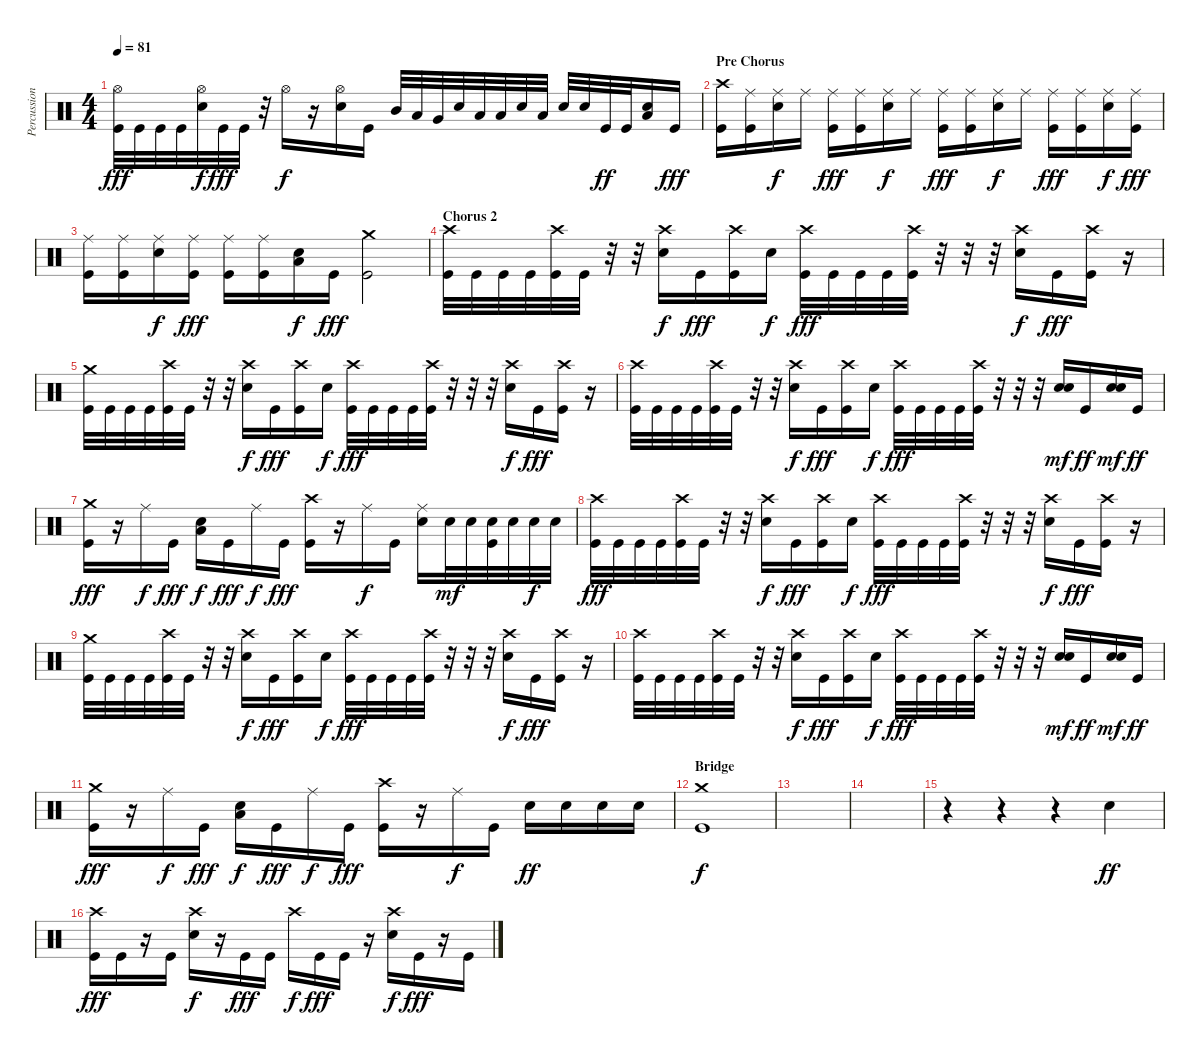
\track ("Percussion" "Percussion") {instrument percussion}
\staff {score}
\articulation defaults
\ts (4 4)
\tempo 81
\clef neutral
\ks c
("Hi-Hat (open)" "Kick (hit)").32{dy fff} "Kick (hit)".32 "Kick (hit)".32 "Kick (hit)".32 ("Hi-Hat (open)" "Electric Snare (hit)").32{dy f} "Kick (hit)".32{dy fff} "Kick (hit)".32 r.32 "Hi-Hat (open)".16{dy f} r.16 ("Hi-Hat (open)" "Electric Snare (hit)").16 "Kick (hit)".16 "Mid Tom (hit)".32 "Low Tom (hit)".32 "Very Low Tom (hit)".32 "Electric Snare (hit)".32 "Low Floor Tom (hit)".32 "Low Floor Tom (hit)".32 "Electric Snare (hit)".32 "Low Floor Tom (hit)".32 "Electric Snare (hit)".32 "Electric Snare (hit)".32 "Kick (hit)".32{dy ff} "Kick (hit)".32 ("Electric Snare (hit)" "Low Floor Tom (hit)").16 "Kick (hit)".16{dy fff} |
\section ("" "Pre Chorus")
("Crash high (hit)" "Kick (hit)").16 ("Ride (middle)" "Kick (hit)").16 ("Ride (middle)" "Electric Snare (hit)").16{dy f} "Ride (middle)".16 ("Ride (middle)" "Kick (hit)").16{dy fff} ("Ride (middle)" "Kick (hit)").16 ("Ride (middle)" "Electric Snare (hit)").16{dy f} "Ride (middle)".16 ("Ride (middle)" "Kick (hit)").16{dy fff} ("Ride (middle)" "Kick (hit)").16 ("Ride (middle)" "Electric Snare (hit)").16{dy f} "Ride (middle)".16 ("Ride (middle)" "Kick (hit)").16{dy fff} ("Ride (middle)" "Kick (hit)").16 ("Ride (middle)" "Electric Snare (hit)").16{dy f} ("Ride (middle)" "Kick (hit)").16{dy fff} |
("Ride (middle)" "Kick (hit)").16 ("Ride (middle)" "Kick (hit)").16 ("Ride (middle)" "Electric Snare (hit)").16{dy f} ("Ride (middle)" "Kick (hit)").16{dy fff} ("Ride (middle)" "Kick (hit)").16 ("Ride (middle)" "Kick (hit)").16 ("Electric Snare (hit)" "Low Floor Tom (hit)").16{dy f} "Kick (hit)".16{dy fff} ("Crash medium (hit)" "Kick (hit)").2 |
\section ("" "Chorus 2")
("Crash high (hit)" "Kick (hit)").32 "Kick (hit)".32 "Kick (hit)".32 "Kick (hit)".32 ("Crash high (hit)" "Kick (hit)").32 "Kick (hit)".32 r.32 r.32 ("Crash high (hit)" "Electric Snare (hit)").16{dy f} "Kick (hit)".16{dy fff} ("Crash high (hit)" "Kick (hit)").16 "Electric Snare (hit)".16{dy f} ("Crash high (hit)" "Kick (hit)").32{dy fff} "Kick (hit)".32 "Kick (hit)".32 "Kick (hit)".32 ("Crash high (hit)" "Kick (hit)").32 r.32 r.32 r.32 ("Crash high (hit)" "Electric Snare (hit)").16{dy f} "Kick (hit)".16{dy fff} ("Crash high (hit)" "Kick (hit)").16 r.16 |
("Crash medium (hit)" "Kick (hit)").32 "Kick (hit)".32 "Kick (hit)".32 "Kick (hit)".32 ("Crash high (hit)" "Kick (hit)").32 "Kick (hit)".32 r.32 r.32 ("Crash high (hit)" "Electric Snare (hit)").16{dy f} "Kick (hit)".16{dy fff} ("Crash high (hit)" "Kick (hit)").16 "Electric Snare (hit)".16{dy f} ("Crash high (hit)" "Kick (hit)").32{dy fff} "Kick (hit)".32 "Kick (hit)".32 "Kick (hit)".32 ("Crash high (hit)" "Kick (hit)").32 r.32 r.32 r.32 ("Crash high (hit)" "Electric Snare (hit)").16{dy f} "Kick (hit)".16{dy fff} ("Crash high (hit)" "Kick (hit)").16 r.16 |
("Crash high (hit)" "Kick (hit)").32 "Kick (hit)".32 "Kick (hit)".32 "Kick (hit)".32 ("Crash high (hit)" "Kick (hit)").32 "Kick (hit)".32 r.32 r.32 ("Crash high (hit)" "Electric Snare (hit)").16{dy f} "Kick (hit)".16{dy fff} ("Crash high (hit)" "Kick (hit)").16 "Electric Snare (hit)".16{dy f} ("Crash high (hit)" "Kick (hit)").32{dy fff} "Kick (hit)".32 "Kick (hit)".32 "Kick (hit)".32 ("Crash high (hit)" "Kick (hit)").32 r.32 r.32 r.32 ("Electric Snare (hit)" "Electric Snare (hit)").16{dy mf} "Kick (hit)".16{dy ff} ("Electric Snare (hit)" "Electric Snare (hit)").16{dy mf} "Kick (hit)".16{dy ff} |
("Crash medium (hit)" "Kick (hit)").16{dy fff} r.16 "Ride (middle)".16{dy f} "Kick (hit)".16{dy fff} ("Electric Snare (hit)" "Low Floor Tom (hit)").16{dy f} "Kick (hit)".16{dy fff} "Ride (middle)".16{dy f} "Kick (hit)".16{dy fff} ("Crash high (hit)" "Kick (hit)").16 r.16 "Ride (middle)".16{dy f} "Kick (hit)".16 ("Ride (middle)" "Electric Snare (hit)").16 "Electric Snare (hit)".32{dy mf} "Electric Snare (hit)".32 ("Electric Snare (hit)" "Kick (hit)").32 "Electric Snare (hit)".32 "Electric Snare (hit)".32{dy f} "Electric Snare (hit)".32 |
("Crash high (hit)" "Kick (hit)").32{dy fff} "Kick (hit)".32 "Kick (hit)".32 "Kick (hit)".32 ("Crash high (hit)" "Kick (hit)").32 "Kick (hit)".32 r.32 r.32 ("Crash high (hit)" "Electric Snare (hit)").16{dy f} "Kick (hit)".16{dy fff} ("Crash high (hit)" "Kick (hit)").16 "Electric Snare (hit)".16{dy f} ("Crash high (hit)" "Kick (hit)").32{dy fff} "Kick (hit)".32 "Kick (hit)".32 "Kick (hit)".32 ("Crash high (hit)" "Kick (hit)").32 r.32 r.32 r.32 ("Crash high (hit)" "Electric Snare (hit)").16{dy f} "Kick (hit)".16{dy fff} ("Crash high (hit)" "Kick (hit)").16 r.16 |
("Crash medium (hit)" "Kick (hit)").32 "Kick (hit)".32 "Kick (hit)".32 "Kick (hit)".32 ("Crash high (hit)" "Kick (hit)").32 "Kick (hit)".32 r.32 r.32 ("Crash high (hit)" "Electric Snare (hit)").16{dy f} "Kick (hit)".16{dy fff} ("Crash high (hit)" "Kick (hit)").16 "Electric Snare (hit)".16{dy f} ("Crash high (hit)" "Kick (hit)").32{dy fff} "Kick (hit)".32 "Kick (hit)".32 "Kick (hit)".32 ("Crash high (hit)" "Kick (hit)").32 r.32 r.32 r.32 ("Crash high (hit)" "Electric Snare (hit)").16{dy f} "Kick (hit)".16{dy fff} ("Crash high (hit)" "Kick (hit)").16 r.16 |
("Crash high (hit)" "Kick (hit)").32 "Kick (hit)".32 "Kick (hit)".32 "Kick (hit)".32 ("Crash high (hit)" "Kick (hit)").32 "Kick (hit)".32 r.32 r.32 ("Crash high (hit)" "Electric Snare (hit)").16{dy f} "Kick (hit)".16{dy fff} ("Crash high (hit)" "Kick (hit)").16 "Electric Snare (hit)".16{dy f} ("Crash high (hit)" "Kick (hit)").32{dy fff} "Kick (hit)".32 "Kick (hit)".32 "Kick (hit)".32 ("Crash high (hit)" "Kick (hit)").32 r.32 r.32 r.32 ("Electric Snare (hit)" "Electric Snare (hit)").16{dy mf} "Kick (hit)".16{dy ff} ("Electric Snare (hit)" "Electric Snare (hit)").16{dy mf} "Kick (hit)".16{dy ff} |
("Crash medium (hit)" "Kick (hit)").16{dy fff} r.16 "Ride (middle)".16{dy f} "Kick (hit)".16{dy fff} ("Electric Snare (hit)" "Low Floor Tom (hit)").16{dy f} "Kick (hit)".16{dy fff} "Ride (middle)".16{dy f} "Kick (hit)".16{dy fff} ("Crash high (hit)" "Kick (hit)").16 r.16 "Ride (middle)".16{dy f} "Kick (hit)".16 "Electric Snare (hit)".16{dy ff} "Electric Snare (hit)".16 "Electric Snare (hit)".16 "Electric Snare (hit)".16 |
\section ("" "Bridge")
("Crash medium (hit)" "Kick (hit)").1{dy f} |
|
|
r.4 r.4 r.4 "Electric Snare (hit)".4{dy ff} |
("Crash high (hit)" "Kick (hit)").16{dy fff} "Kick (hit)".16 r.16 "Kick (hit)".16 ("Crash high (hit)" "Electric Snare (hit)").16{dy f} r.16 "Kick (hit)".16{dy fff} "Kick (hit)".16 "Crash high (hit)".16{dy f} "Kick (hit)".16{dy fff} "Kick (hit)".16 r.16 ("Crash high (hit)" "Electric Snare (hit)").16{dy f} "Kick (hit)".16{dy fff} r.16 "Kick (hit)".16
